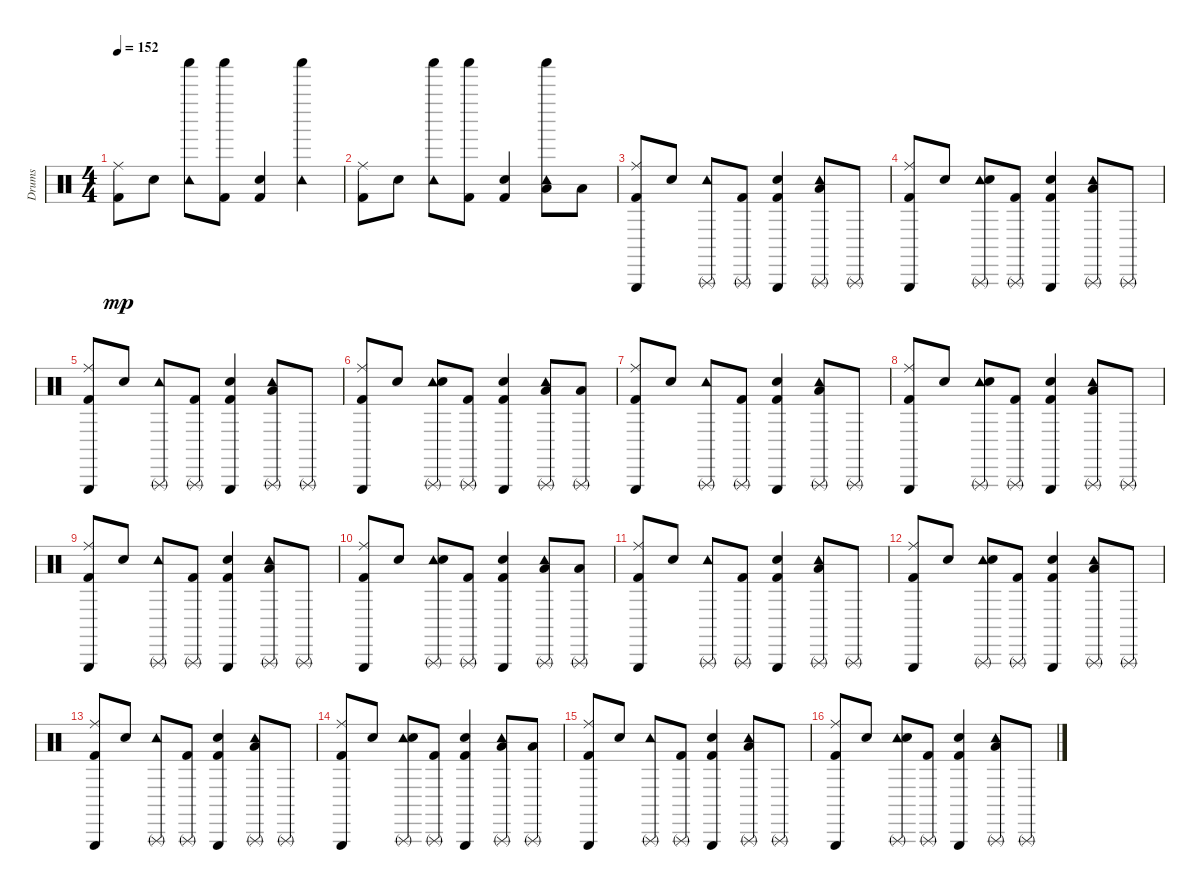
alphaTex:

\track ("Drums" "Drums") {instrument percussion}
\staff {score}
\articulation defaults
\ts (4 4)
\tempo 152
\clef neutral
\ks c
("Ride (middle)" "Kick (hit) 2").8{dy mp} "Snare (hit) 2".8 ("Shaker (hit)" "Tambourine (hit)").8 ("Shaker (hit)" "Kick (hit) 2").8 ("Kick (hit) 2" "Snare (hit) 2").4 ("Tambourine (hit)" "Shaker (hit)").4 |
("Ride (middle)" "Kick (hit) 2").8 "Snare (hit) 2".8 ("Shaker (hit)" "Tambourine (hit)").8 ("Shaker (hit)" "Kick (hit) 2").8 ("Kick (hit) 2" "Snare (hit) 2").4 ("Tambourine (hit)" "Shaker (hit)" "Low Tom (hit)").8 "Low Tom (hit)".8 |
("Triangle (hit)" "Ride (middle)" "Kick (hit) 2").8 "Snare (hit) 2".8 ("Triangle (rnute)" "Tambourine (hit)").8 ("Triangle (rnute)" "Kick (hit) 2").8 ("Triangle (hit)" "Kick (hit) 2" "Snare (hit) 2").4 ("Tambourine (hit)" "Low Tom (hit)" "Triangle (rnute)").8 "Triangle (rnute)".8 |
("Triangle (hit)" "Ride (middle)" "Kick (hit) 2").8 "Snare (hit) 2".8 ("Triangle (rnute)" "Tambourine (hit)" "Snare (hit) 2").8 ("Triangle (rnute)" "Kick (hit) 2").8 ("Triangle (hit)" "Kick (hit) 2" "Snare (hit) 2").4 ("Tambourine (hit)" "Low Tom (hit)" "Triangle (rnute)").8 "Triangle (rnute)".8 |
("Triangle (hit)" "Ride (middle)" "Kick (hit) 2").8 "Snare (hit) 2".8 ("Triangle (rnute)" "Tambourine (hit)").8 ("Triangle (rnute)" "Kick (hit) 2").8 ("Triangle (hit)" "Kick (hit) 2" "Snare (hit) 2").4 ("Tambourine (hit)" "Low Tom (hit)" "Triangle (rnute)").8 "Triangle (rnute)".8 |
("Triangle (hit)" "Ride (middle)" "Kick (hit) 2").8 "Snare (hit) 2".8 ("Triangle (rnute)" "Tambourine (hit)" "Snare (hit) 2").8 ("Triangle (rnute)" "Kick (hit) 2").8 ("Triangle (hit)" "Kick (hit) 2" "Snare (hit) 2").4 ("Tambourine (hit)" "Triangle (rnute)" "Low Tom (hit)").8 ("Low Tom (hit)" "Triangle (rnute)").8 |
("Triangle (hit)" "Ride (middle)" "Kick (hit) 2").8 "Snare (hit) 2".8 ("Triangle (rnute)" "Tambourine (hit)").8 ("Triangle (rnute)" "Kick (hit) 2").8 ("Triangle (hit)" "Kick (hit) 2" "Snare (hit) 2").4 ("Tambourine (hit)" "Low Tom (hit)" "Triangle (rnute)").8 "Triangle (rnute)".8 |
("Triangle (hit)" "Ride (middle)" "Kick (hit) 2").8 "Snare (hit) 2".8 ("Triangle (rnute)" "Tambourine (hit)" "Snare (hit) 2").8 ("Triangle (rnute)" "Kick (hit) 2").8 ("Triangle (hit)" "Kick (hit) 2" "Snare (hit) 2").4 ("Tambourine (hit)" "Low Tom (hit)" "Triangle (rnute)").8 "Triangle (rnute)".8 |
("Triangle (hit)" "Ride (middle)" "Kick (hit) 2").8 "Snare (hit) 2".8 ("Triangle (rnute)" "Tambourine (hit)").8 ("Triangle (rnute)" "Kick (hit) 2").8 ("Triangle (hit)" "Kick (hit) 2" "Snare (hit) 2").4 ("Tambourine (hit)" "Low Tom (hit)" "Triangle (rnute)").8 "Triangle (rnute)".8 |
("Triangle (hit)" "Ride (middle)" "Kick (hit) 2").8 "Snare (hit) 2".8 ("Triangle (rnute)" "Tambourine (hit)" "Snare (hit) 2").8 ("Triangle (rnute)" "Kick (hit) 2").8 ("Triangle (hit)" "Kick (hit) 2" "Snare (hit) 2").4 ("Tambourine (hit)" "Triangle (rnute)" "Low Tom (hit)").8 ("Low Tom (hit)" "Triangle (rnute)").8 |
("Triangle (hit)" "Ride (middle)" "Kick (hit) 2").8 "Snare (hit) 2".8 ("Triangle (rnute)" "Tambourine (hit)").8 ("Triangle (rnute)" "Kick (hit) 2").8 ("Triangle (hit)" "Kick (hit) 2" "Snare (hit) 2").4 ("Tambourine (hit)" "Low Tom (hit)" "Triangle (rnute)").8 "Triangle (rnute)".8 |
("Triangle (hit)" "Ride (middle)" "Kick (hit) 2").8 "Snare (hit) 2".8 ("Triangle (rnute)" "Tambourine (hit)" "Snare (hit) 2").8 ("Triangle (rnute)" "Kick (hit) 2").8 ("Triangle (hit)" "Kick (hit) 2" "Snare (hit) 2").4 ("Tambourine (hit)" "Low Tom (hit)" "Triangle (rnute)").8 "Triangle (rnute)".8 |
("Triangle (hit)" "Ride (middle)" "Kick (hit) 2").8 "Snare (hit) 2".8 ("Triangle (rnute)" "Tambourine (hit)").8 ("Triangle (rnute)" "Kick (hit) 2").8 ("Triangle (hit)" "Kick (hit) 2" "Snare (hit) 2").4 ("Tambourine (hit)" "Low Tom (hit)" "Triangle (rnute)").8 "Triangle (rnute)".8 |
("Triangle (hit)" "Ride (middle)" "Kick (hit) 2").8 "Snare (hit) 2".8 ("Triangle (rnute)" "Tambourine (hit)" "Snare (hit) 2").8 ("Triangle (rnute)" "Kick (hit) 2").8 ("Triangle (hit)" "Kick (hit) 2" "Snare (hit) 2").4 ("Tambourine (hit)" "Triangle (rnute)" "Low Tom (hit)").8 ("Low Tom (hit)" "Triangle (rnute)").8 |
("Triangle (hit)" "Ride (middle)" "Kick (hit) 2").8 "Snare (hit) 2".8 ("Triangle (rnute)" "Tambourine (hit)").8 ("Triangle (rnute)" "Kick (hit) 2").8 ("Triangle (hit)" "Kick (hit) 2" "Snare (hit) 2").4 ("Tambourine (hit)" "Low Tom (hit)" "Triangle (rnute)").8 "Triangle (rnute)".8 |
("Triangle (hit)" "Ride (middle)" "Kick (hit) 2").8 "Snare (hit) 2".8 ("Triangle (rnute)" "Tambourine (hit)" "Snare (hit) 2").8 ("Triangle (rnute)" "Kick (hit) 2").8 ("Triangle (hit)" "Kick (hit) 2" "Snare (hit) 2").4 ("Tambourine (hit)" "Low Tom (hit)" "Triangle (rnute)").8 "Triangle (rnute)".8
